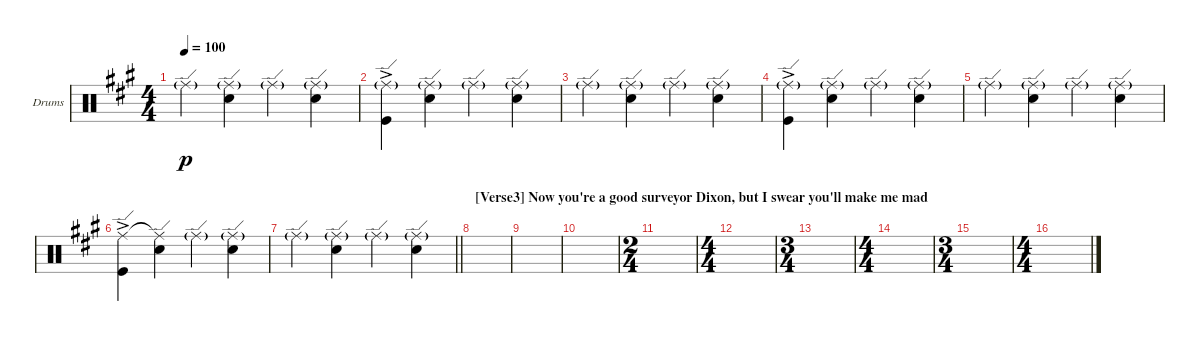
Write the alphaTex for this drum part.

\bracketExtendMode groupsimilarinstruments
\firstSystemTrackNameOrientation horizontal
\otherSystemsTrackNameOrientation horizontal
\track ("Drumkit" "Drums") {instrument percussion}
\staff {score}
\articulation defaults
\ts (4 4)
\tempo 100
\clef neutral
\scale
0.333333
\ks f#minor "Ride (edge)"{g}.4{dy p}
("Snare (hit) 2" "Ride (edge)"{g}).4 "Ride (edge)"{g}.4 ("Snare (hit) 2" "Ride (edge)"{g}).4 |
\scale
0.333333 ("Kick (hit)"{ac} "Ride (edge)"{g}).4 ("Snare (hit) 2" "Ride (edge)"{g}).4 "Ride (edge)"{g}.4 ("Snare (hit) 2" "Ride (edge)"{g}).4 |
\scale
0.333333 "Ride (edge)"{g}.4 ("Snare (hit) 2" "Ride (edge)"{g}).4 "Ride (edge)"{g}.4 ("Snare (hit) 2" "Ride (edge)"{g}).4 |
\scale
0.333333 ("Kick (hit)"{ac} "Ride (edge)"{g}).4 ("Snare (hit) 2" "Ride (edge)"{g}).4 "Ride (edge)"{g}.4 ("Snare (hit) 2" "Ride (edge)"{g}).4 |
\scale
0.333333 "Ride (edge)"{g}.4 ("Snare (hit) 2" "Ride (edge)"{g}).4 "Ride (edge)"{g}.4 ("Snare (hit) 2" "Ride (edge)"{g}).4 |
\scale
0.333333 ("Kick (hit)"{ac} "Ride (edge)"{ac}).4 ("Snare (hit) 2" "Ride (edge)"{t}).4 "Ride (edge)"{g}.4 ("Snare (hit) 2" "Ride (edge)"{g}).4 |
\scale
0.333333
\barLineRight lightlight "Ride (edge)"{g}.4
("Snare (hit) 2" "Ride (edge)"{g}).4 "Ride (edge)"{g}.4 ("Snare (hit) 2" "Ride (edge)"{g}).4 |
\section ("" "[Verse3] Now you're a good surveyor Dixon, but I swear you'll make me mad")
\scale
0.333333 |
\scale
0.333333 |
\scale
0.190635 |
\ts (2 4)
\scale
0.404682 |
\ts (4 4)
\scale
0.404682 |
\ts (3 4)
\scale
0.333333 |
\ts (4 4)
\scale
0.333333 |
\ts (3 4)
\scale
0.333333 |
\ts (4 4)
\scale
0.333333
